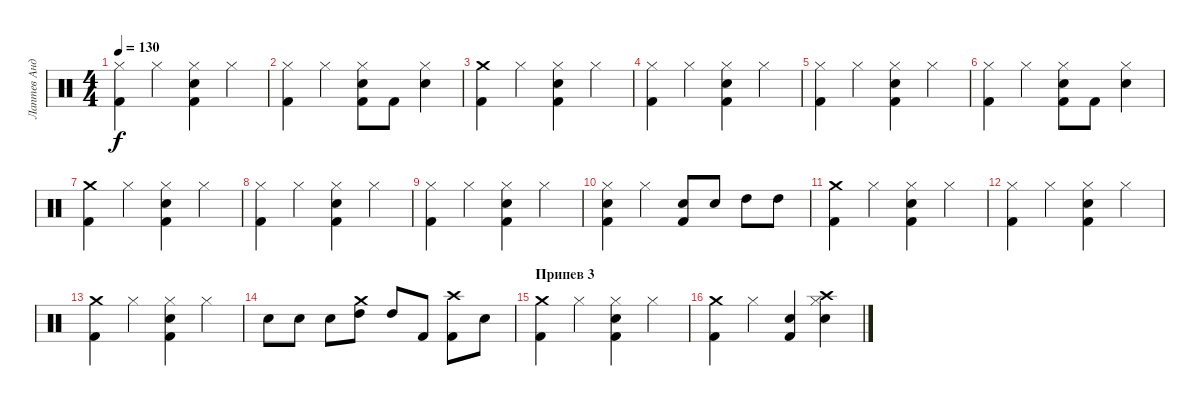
\track ("Лаптев Андрей" "Лаптев Анд") {instrument percussion}
\staff {score}
\articulation defaults
\ts (4 4)
\tempo 130
\clef neutral
\ks c
("Hi-Hat (closed)" "Kick (hit) 2").4{dy f} "Hi-Hat (closed)".4 ("Kick (hit) 2" "Electric Snare (hit)" "Hi-Hat (closed)").4 "Hi-Hat (closed)".4 |
("Hi-Hat (closed)" "Kick (hit) 2").4 "Hi-Hat (closed)".4 ("Kick (hit) 2" "Electric Snare (hit)" "Hi-Hat (closed)").8 "Kick (hit) 2".8 ("Hi-Hat (closed)" "Electric Snare (hit)").4 |
("Crash medium (hit)" "Kick (hit) 2").4 "Hi-Hat (closed)".4 ("Kick (hit) 2" "Electric Snare (hit)" "Hi-Hat (closed)").4 "Hi-Hat (closed)".4 |
("Hi-Hat (closed)" "Kick (hit) 2").4 "Hi-Hat (closed)".4 ("Kick (hit) 2" "Electric Snare (hit)" "Hi-Hat (closed)").4 "Hi-Hat (closed)".4 |
("Hi-Hat (closed)" "Kick (hit) 2").4 "Hi-Hat (closed)".4 ("Kick (hit) 2" "Electric Snare (hit)" "Hi-Hat (closed)").4 "Hi-Hat (closed)".4 |
("Hi-Hat (closed)" "Kick (hit) 2").4 "Hi-Hat (closed)".4 ("Kick (hit) 2" "Electric Snare (hit)" "Hi-Hat (closed)").8 "Kick (hit) 2".8 ("Hi-Hat (closed)" "Electric Snare (hit)").4 |
("Crash medium (hit)" "Kick (hit) 2").4 "Hi-Hat (closed)".4 ("Kick (hit) 2" "Electric Snare (hit)" "Hi-Hat (closed)").4 "Hi-Hat (closed)".4 |
("Hi-Hat (closed)" "Kick (hit) 2").4 "Hi-Hat (closed)".4 ("Kick (hit) 2" "Electric Snare (hit)" "Hi-Hat (closed)").4 "Hi-Hat (closed)".4 |
("Hi-Hat (closed)" "Kick (hit) 2").4 "Hi-Hat (closed)".4 ("Kick (hit) 2" "Electric Snare (hit)" "Hi-Hat (closed)").4 "Hi-Hat (closed)".4 |
("Hi-Hat (closed)" "Kick (hit) 2" "Electric Snare (hit)").4 "Hi-Hat (closed)".4 ("Kick (hit) 2" "Electric Snare (hit)").8 "Electric Snare (hit)".8 "High Tom (hit)".8 "High Tom (hit)".8 |
("Crash medium (hit)" "Kick (hit) 2").4 "Hi-Hat (closed)".4 ("Kick (hit) 2" "Electric Snare (hit)" "Hi-Hat (closed)").4 "Hi-Hat (closed)".4 |
("Hi-Hat (closed)" "Kick (hit) 2").4 "Hi-Hat (closed)".4 ("Kick (hit) 2" "Electric Snare (hit)" "Hi-Hat (closed)").4 "Hi-Hat (closed)".4 |
("Crash medium (hit)" "Kick (hit) 2").4 "Hi-Hat (closed)".4 ("Kick (hit) 2" "Electric Snare (hit)" "Hi-Hat (closed)").4 "Hi-Hat (closed)".4 |
"Electric Snare (hit)".8 "Electric Snare (hit)".8 "Electric Snare (hit)".8 ("High Tom (hit)" "Crash medium (hit)").8 "High Tom (hit)".8 "Kick (hit) 2".8 ("Kick (hit) 2" "Crash high (hit)").8 "Electric Snare (hit)".8 |
\section ("" "Припев 3")
("Crash medium (hit)" "Kick (hit) 2").4 "Hi-Hat (closed)".4 ("Kick (hit) 2" "Electric Snare (hit)" "Hi-Hat (closed)").4 "Hi-Hat (closed)".4 |
("Crash medium (hit)" "Kick (hit) 2").4 "Hi-Hat (closed)".4 ("Kick (hit) 2" "Electric Snare (hit)").4 ("Hi-Hat (closed)" "Electric Snare (hit)" "Crash high (hit)").4
